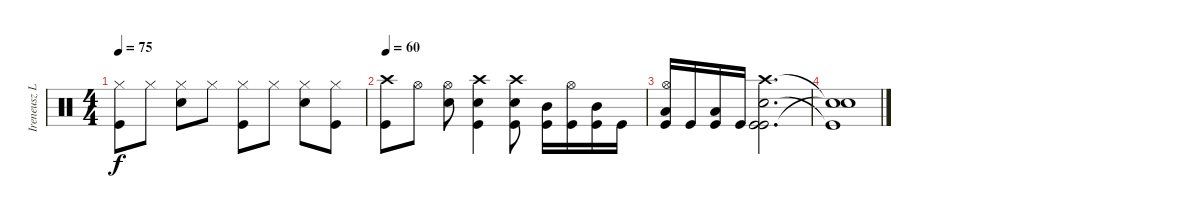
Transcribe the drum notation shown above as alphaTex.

\track ("Ireneusz Loth" "Ireneusz L") {instrument percussion}
\staff {score}
\articulation defaults
\ts (4 4)
\tempo 75
\clef neutral
\ks c
("Hi-Hat (closed)" "Kick (hit)").8{dy f} "Hi-Hat (closed)".8 ("Hi-Hat (closed)" "Snare (hit) 2").8 "Hi-Hat (closed)".8 ("Hi-Hat (closed)" "Kick (hit)").8 "Hi-Hat (closed)".8 ("Hi-Hat (closed)" "Snare (hit) 2").8 ("Hi-Hat (closed)" "Kick (hit)").8 |
\tempo 60
("Crash high (hit)" "Kick (hit)").8 "Hi-Hat (open)".8 ("Hi-Hat (open)" "Snare (hit) 2").8 ("Crash high (hit)" "Snare (hit) 2" "Kick (hit)").4 ("Crash high (hit)" "Snare (hit) 2" "Kick (hit)").8 ("Mid Tom (hit)" "Kick (hit)").16 ("Hi-Hat (open)" "Kick (hit)").16 ("Mid Tom (hit)" "Kick (hit)").16 "Kick (hit)".16 |
("Hi-Hat (open)" "Low Tom (hit)" "Kick (hit)").16 "Kick (hit)".16 ("Low Tom (hit)" "Kick (hit)").16 "Kick (hit)".16 ("Kick (hit)" "Crash high (hit)" "Snare (hit) 2" "Kick (hit)").2{d} |
("Snare (hit)"{t} "Snare (hit)"{t} "Kick (hit)"{t}).1
